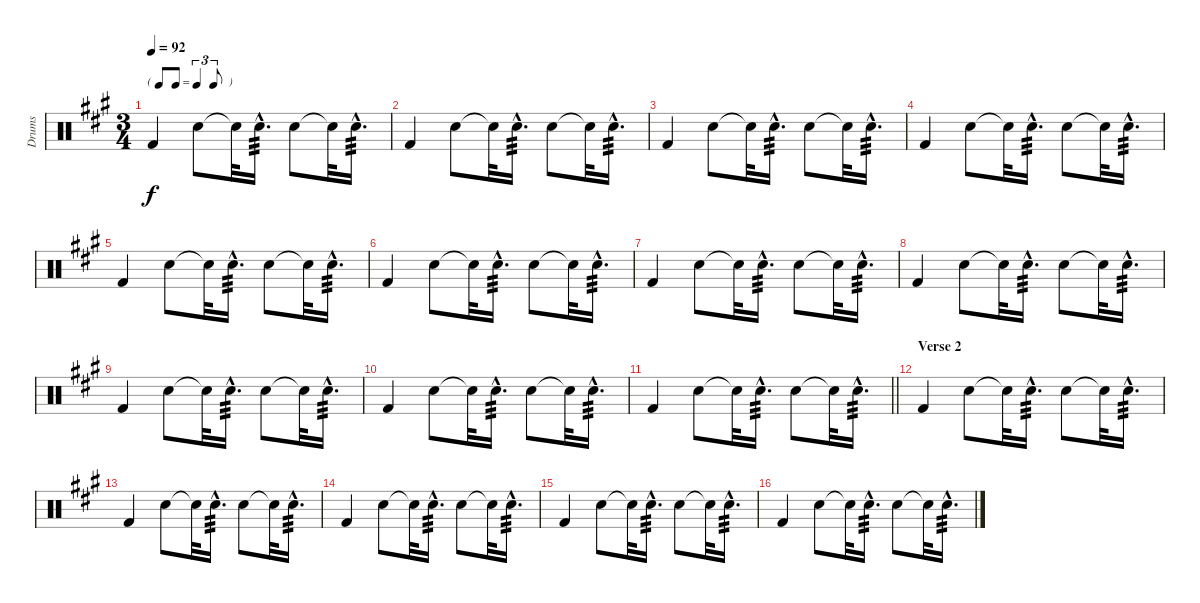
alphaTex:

\track ("Drums" "Drums") {instrument percussion}
\staff {score}
\articulation defaults
\ts (3 4)
\tf triplet8th
\tempo 92
\clef neutral
\ks a "Kick (hit) 2".4{dy f} "Snare (hit) 2".8{balance 0} "Snare (hit) 2"{t}.32 "Snare (hit) 2"{hac}.16{d tp 3 balance 16} "Snare (hit) 2".8{balance 0} "Snare (hit) 2"{t}.32 "Snare (hit) 2"{hac}.16{d tp 3 balance 16}
|
"Kick (hit) 2".4 "Snare (hit) 2".8{balance 0} "Snare (hit) 2"{t}.32 "Snare (hit) 2"{hac}.16{d tp 3 balance 16} "Snare (hit) 2".8{balance 0} "Snare (hit) 2"{t}.32 "Snare (hit) 2"{hac}.16{d tp 3 balance 16} |
"Kick (hit) 2".4 "Snare (hit) 2".8{balance 0} "Snare (hit) 2"{t}.32 "Snare (hit) 2"{hac}.16{d tp 3 balance 16} "Snare (hit) 2".8{balance 0} "Snare (hit) 2"{t}.32 "Snare (hit) 2"{hac}.16{d tp 3 balance 16} |
"Kick (hit) 2".4 "Snare (hit) 2".8{balance 0} "Snare (hit) 2"{t}.32 "Snare (hit) 2"{hac}.16{d tp 3 balance 16} "Snare (hit) 2".8{balance 0} "Snare (hit) 2"{t}.32 "Snare (hit) 2"{hac}.16{d tp 3 balance 16} |
"Kick (hit) 2".4 "Snare (hit) 2".8{balance 0} "Snare (hit) 2"{t}.32 "Snare (hit) 2"{hac}.16{d tp 3 balance 16} "Snare (hit) 2".8{balance 0} "Snare (hit) 2"{t}.32 "Snare (hit) 2"{hac}.16{d tp 3 balance 16} |
"Kick (hit) 2".4 "Snare (hit) 2".8{balance 0} "Snare (hit) 2"{t}.32 "Snare (hit) 2"{hac}.16{d tp 3 balance 16} "Snare (hit) 2".8{balance 0} "Snare (hit) 2"{t}.32 "Snare (hit) 2"{hac}.16{d tp 3 balance 16} |
"Kick (hit) 2".4 "Snare (hit) 2".8{balance 0} "Snare (hit) 2"{t}.32 "Snare (hit) 2"{hac}.16{d tp 3 balance 16} "Snare (hit) 2".8{balance 0} "Snare (hit) 2"{t}.32 "Snare (hit) 2"{hac}.16{d tp 3 balance 16} |
"Kick (hit) 2".4 "Snare (hit) 2".8{balance 0} "Snare (hit) 2"{t}.32 "Snare (hit) 2"{hac}.16{d tp 3 balance 16} "Snare (hit) 2".8{balance 0} "Snare (hit) 2"{t}.32 "Snare (hit) 2"{hac}.16{d tp 3 balance 16} |
"Kick (hit) 2".4 "Snare (hit) 2".8{balance 0} "Snare (hit) 2"{t}.32 "Snare (hit) 2"{hac}.16{d tp 3 balance 16} "Snare (hit) 2".8{balance 0} "Snare (hit) 2"{t}.32 "Snare (hit) 2"{hac}.16{d tp 3 balance 16} |
"Kick (hit) 2".4 "Snare (hit) 2".8{balance 0} "Snare (hit) 2"{t}.32 "Snare (hit) 2"{hac}.16{d tp 3 balance 16} "Snare (hit) 2".8{balance 0} "Snare (hit) 2"{t}.32 "Snare (hit) 2"{hac}.16{d tp 3 balance 16} |
\barLineRight lightlight "Kick (hit) 2".4 "Snare (hit) 2".8{balance 0} "Snare (hit) 2"{t}.32 "Snare (hit) 2"{hac}.16{d tp 3 balance 16} "Snare (hit) 2".8{balance 0} "Snare (hit) 2"{t}.32 "Snare (hit) 2"{hac}.16{d tp 3 balance 16}
|
\section ("" "Verse 2")
"Kick (hit) 2".4 "Snare (hit) 2".8{balance 0} "Snare (hit) 2"{t}.32 "Snare (hit) 2"{hac}.16{d tp 3 balance 16} "Snare (hit) 2".8{balance 0} "Snare (hit) 2"{t}.32 "Snare (hit) 2"{hac}.16{d tp 3 balance 16} |
"Kick (hit) 2".4 "Snare (hit) 2".8{balance 0} "Snare (hit) 2"{t}.32 "Snare (hit) 2"{hac}.16{d tp 3 balance 16} "Snare (hit) 2".8{balance 0} "Snare (hit) 2"{t}.32 "Snare (hit) 2"{hac}.16{d tp 3 balance 16} |
"Kick (hit) 2".4 "Snare (hit) 2".8{balance 0} "Snare (hit) 2"{t}.32 "Snare (hit) 2"{hac}.16{d tp 3 balance 16} "Snare (hit) 2".8{balance 0} "Snare (hit) 2"{t}.32 "Snare (hit) 2"{hac}.16{d tp 3 balance 16} |
"Kick (hit) 2".4 "Snare (hit) 2".8{balance 0} "Snare (hit) 2"{t}.32 "Snare (hit) 2"{hac}.16{d tp 3 balance 16} "Snare (hit) 2".8{balance 0} "Snare (hit) 2"{t}.32 "Snare (hit) 2"{hac}.16{d tp 3 balance 16} |
"Kick (hit) 2".4 "Snare (hit) 2".8{balance 0} "Snare (hit) 2"{t}.32 "Snare (hit) 2"{hac}.16{d tp 3 balance 16} "Snare (hit) 2".8{balance 0} "Snare (hit) 2"{t}.32 "Snare (hit) 2"{hac}.16{d tp 3 balance 16}
